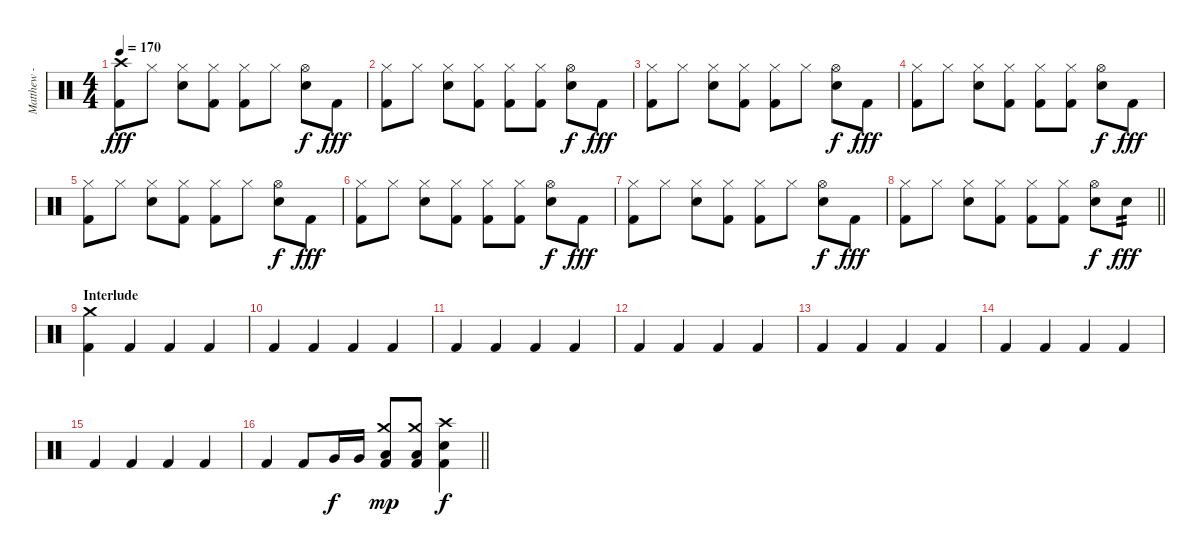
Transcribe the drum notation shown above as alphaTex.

\track ("Matthew - Drums" "Matthew - ") {instrument percussion}
\staff {score}
\articulation defaults
\ts (4 4)
\tempo 170
\clef neutral
\ks c
("Crash high (hit)" "Kick (hit) 2").8{dy fff} "Hi-Hat (closed)".8 ("Hi-Hat (closed)" "Electric Snare (hit)").8 ("Hi-Hat (closed)" "Kick (hit) 2").8 ("Hi-Hat (closed)" "Kick (hit) 2").8 "Hi-Hat (closed)".8 ("Hi-Hat (open)" "Electric Snare (hit)").8{dy f} "Kick (hit) 2".8{dy fff} |
("Hi-Hat (closed)" "Kick (hit) 2").8 "Hi-Hat (closed)".8 ("Hi-Hat (closed)" "Electric Snare (hit)").8 ("Hi-Hat (closed)" "Kick (hit) 2").8 ("Hi-Hat (closed)" "Kick (hit) 2").8 ("Hi-Hat (closed)" "Kick (hit) 2").8 ("Hi-Hat (open)" "Electric Snare (hit)").8{dy f} "Kick (hit) 2".8{dy fff} |
("Hi-Hat (closed)" "Kick (hit) 2").8 "Hi-Hat (closed)".8 ("Hi-Hat (closed)" "Electric Snare (hit)").8 ("Hi-Hat (closed)" "Kick (hit) 2").8 ("Hi-Hat (closed)" "Kick (hit) 2").8 "Hi-Hat (closed)".8 ("Hi-Hat (open)" "Electric Snare (hit)").8{dy f} "Kick (hit) 2".8{dy fff} |
("Hi-Hat (closed)" "Kick (hit) 2").8 "Hi-Hat (closed)".8 ("Hi-Hat (closed)" "Electric Snare (hit)").8 ("Hi-Hat (closed)" "Kick (hit) 2").8 ("Hi-Hat (closed)" "Kick (hit) 2").8 ("Hi-Hat (closed)" "Kick (hit) 2").8 ("Hi-Hat (open)" "Electric Snare (hit)").8{dy f} "Kick (hit) 2".8{dy fff} |
("Hi-Hat (closed)" "Kick (hit) 2").8 "Hi-Hat (closed)".8 ("Hi-Hat (closed)" "Electric Snare (hit)").8 ("Hi-Hat (closed)" "Kick (hit) 2").8 ("Hi-Hat (closed)" "Kick (hit) 2").8 "Hi-Hat (closed)".8 ("Hi-Hat (open)" "Electric Snare (hit)").8{dy f} "Kick (hit) 2".8{dy fff} |
("Hi-Hat (closed)" "Kick (hit) 2").8 "Hi-Hat (closed)".8 ("Hi-Hat (closed)" "Electric Snare (hit)").8 ("Hi-Hat (closed)" "Kick (hit) 2").8 ("Hi-Hat (closed)" "Kick (hit) 2").8 ("Hi-Hat (closed)" "Kick (hit) 2").8 ("Hi-Hat (open)" "Electric Snare (hit)").8{dy f} "Kick (hit) 2".8{dy fff} |
("Hi-Hat (closed)" "Kick (hit) 2").8 "Hi-Hat (closed)".8 ("Hi-Hat (closed)" "Electric Snare (hit)").8 ("Hi-Hat (closed)" "Kick (hit) 2").8 ("Hi-Hat (closed)" "Kick (hit) 2").8 "Hi-Hat (closed)".8 ("Hi-Hat (open)" "Electric Snare (hit)").8{dy f} "Kick (hit) 2".8{dy fff} |
\barLineRight lightlight
("Hi-Hat (closed)" "Kick (hit) 2").8 "Hi-Hat (closed)".8 ("Hi-Hat (closed)" "Electric Snare (hit)").8 ("Hi-Hat (closed)" "Kick (hit) 2").8 ("Hi-Hat (closed)" "Kick (hit) 2").8 ("Hi-Hat (closed)" "Kick (hit) 2").8 ("Hi-Hat (open)" "Electric Snare (hit)").8{dy f} "Electric Snare (hit)".8{tp 2 dy fff} |
\section ("" "Interlude")
("Crash medium (hit)" "Kick (hit) 2").4 "Kick (hit) 2".4 "Kick (hit) 2".4 "Kick (hit) 2".4 |
"Kick (hit) 2".4 "Kick (hit) 2".4 "Kick (hit) 2".4 "Kick (hit) 2".4 |
"Kick (hit) 2".4 "Kick (hit) 2".4 "Kick (hit) 2".4 "Kick (hit) 2".4 |
"Kick (hit) 2".4 "Kick (hit) 2".4 "Kick (hit) 2".4 "Kick (hit) 2".4 |
"Kick (hit) 2".4 "Kick (hit) 2".4 "Kick (hit) 2".4 "Kick (hit) 2".4 |
"Kick (hit) 2".4 "Kick (hit) 2".4 "Kick (hit) 2".4 "Kick (hit) 2".4 |
"Kick (hit) 2".4 "Kick (hit) 2".4 "Kick (hit) 2".4 "Kick (hit) 2".4 |
\barLineRight lightlight "Kick (hit) 2".4 "Kick (hit) 2".8 "Very Low Tom (hit)".16{dy f} "Very Low Tom (hit)".16
("Crash medium (hit)" "Low Floor Tom (hit)" "Kick (hit) 2").8{dy mp} ("Crash medium (hit)" "Low Floor Tom (hit)" "Kick (hit) 2").8 ("Crash high (hit)" "Electric Snare (hit)" "Kick (hit) 2").4{dy f}
